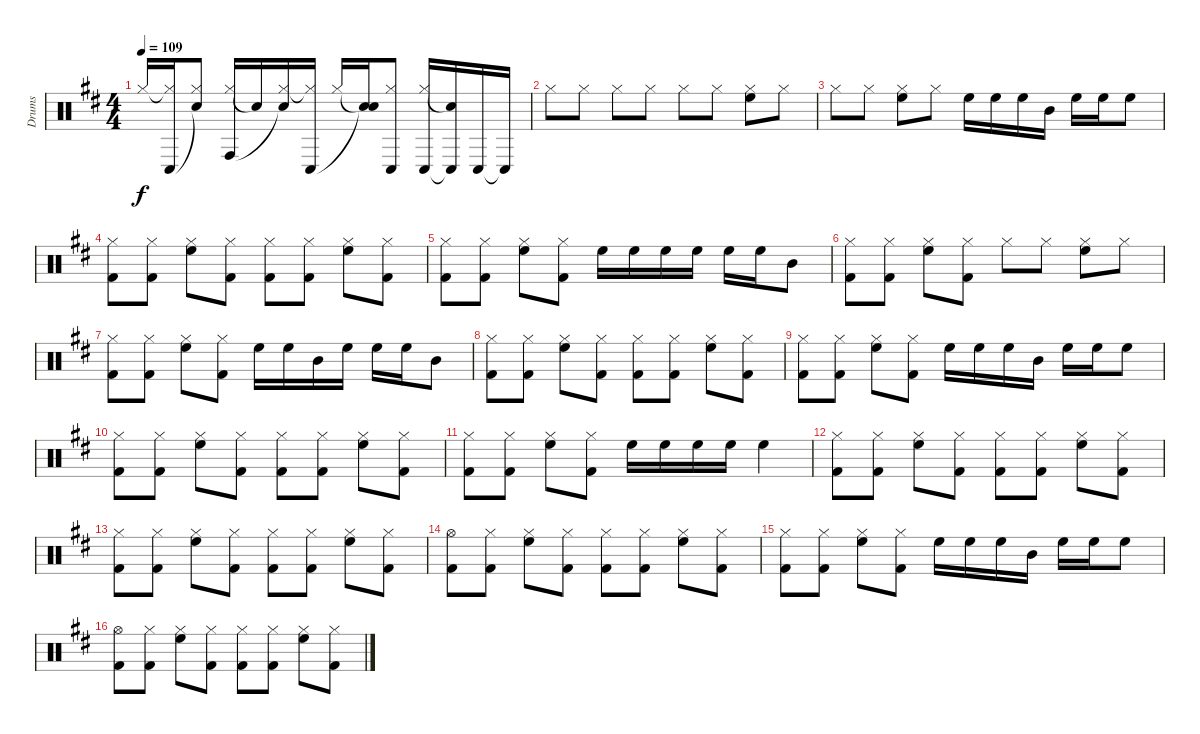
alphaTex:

\track ("Drums" "Drums") {instrument percussion}
\staff {score}
\articulation defaults
\ts (4 4)
\tempo 109
\clef neutral
\ks d "Hi-Hat (closed)".16{dy f}
("Hi-Hat (closed)"{t} "Conga low (hit)").16 ("Hi-Hat (closed)" "Snare (hit)"{t}).8 ("Hi-Hat (closed)" "Conga high (hit)").16 "Snare (hit)"{t}.16 ("Hi-Hat (closed)" "Snare (hit)"{t}).16 ("Hi-Hat (closed)"{t} "Conga low (hit)").16 "Hi-Hat (closed)".16 ("Snare (hit)"{t} "Snare (hit)"{t}).16 ("Hi-Hat (closed)" "Conga low (hit)").8 ("Hi-Hat (closed)" "Conga low (hit)").16 ("Snare (hit)"{t} "Conga low (hit)"{t}).16 "Conga low (hit)".16 "Conga low (hit)"{t}.16 |
"Hi-Hat (closed)".8 "Hi-Hat (closed)".8 "Hi-Hat (closed)".8 "Hi-Hat (closed)".8 "Hi-Hat (closed)".8 "Hi-Hat (closed)".8 ("Hi-Hat (closed)" "High Floor Tom (hit)").8 "Hi-Hat (closed)".8 |
"Hi-Hat (closed)".8 "Hi-Hat (closed)".8 ("Hi-Hat (closed)" "High Floor Tom (hit)").8 "Hi-Hat (closed)".8 "High Floor Tom (hit)".16 "High Floor Tom (hit)".16 "High Floor Tom (hit)".16 "Mid Tom (hit)".16 "High Floor Tom (hit)".16 "High Floor Tom (hit)".16 "High Floor Tom (hit)".8 |
("Hi-Hat (closed)" "Kick (hit) 2").8 ("Hi-Hat (closed)" "Kick (hit) 2").8 ("Hi-Hat (closed)" "High Floor Tom (hit)").8 ("Hi-Hat (closed)" "Kick (hit) 2").8 ("Hi-Hat (closed)" "Kick (hit) 2").8 ("Hi-Hat (closed)" "Kick (hit) 2").8 ("Hi-Hat (closed)" "High Floor Tom (hit)").8 ("Hi-Hat (closed)" "Kick (hit) 2").8 |
("Hi-Hat (closed)" "Kick (hit) 2").8 ("Hi-Hat (closed)" "Kick (hit) 2").8 ("Hi-Hat (closed)" "High Floor Tom (hit)").8 ("Hi-Hat (closed)" "Kick (hit) 2").8 "High Floor Tom (hit)".16 "High Floor Tom (hit)".16 "High Floor Tom (hit)".16 "High Floor Tom (hit)".16 "High Floor Tom (hit)".16 "High Floor Tom (hit)".16 "Mid Tom (hit)".8 |
("Hi-Hat (closed)" "Kick (hit) 2").8 ("Hi-Hat (closed)" "Kick (hit) 2").8 ("Hi-Hat (closed)" "High Floor Tom (hit)").8 ("Hi-Hat (closed)" "Kick (hit) 2").8 "Hi-Hat (closed)".8 "Hi-Hat (closed)".8 ("Hi-Hat (closed)" "High Floor Tom (hit)").8 "Hi-Hat (closed)".8 |
("Hi-Hat (closed)" "Kick (hit) 2").8 ("Hi-Hat (closed)" "Kick (hit) 2").8 ("Hi-Hat (closed)" "High Floor Tom (hit)").8 ("Hi-Hat (closed)" "Kick (hit) 2").8 "High Floor Tom (hit)".16 "High Floor Tom (hit)".16 "Mid Tom (hit)".16 "High Floor Tom (hit)".16 "High Floor Tom (hit)".16 "High Floor Tom (hit)".16 "Mid Tom (hit)".8 |
("Hi-Hat (closed)" "Kick (hit) 2").8 ("Hi-Hat (closed)" "Kick (hit) 2").8 ("Hi-Hat (closed)" "High Floor Tom (hit)").8 ("Hi-Hat (closed)" "Kick (hit) 2").8 ("Hi-Hat (closed)" "Kick (hit) 2").8 ("Hi-Hat (closed)" "Kick (hit) 2").8 ("Hi-Hat (closed)" "High Floor Tom (hit)").8 ("Hi-Hat (closed)" "Kick (hit) 2").8 |
("Hi-Hat (closed)" "Kick (hit) 2").8 ("Hi-Hat (closed)" "Kick (hit) 2").8 ("Hi-Hat (closed)" "High Floor Tom (hit)").8 ("Hi-Hat (closed)" "Kick (hit) 2").8 "High Floor Tom (hit)".16 "High Floor Tom (hit)".16 "High Floor Tom (hit)".16 "Mid Tom (hit)".16 "High Floor Tom (hit)".16 "High Floor Tom (hit)".16 "High Floor Tom (hit)".8 |
("Hi-Hat (closed)" "Kick (hit) 2").8 ("Hi-Hat (closed)" "Kick (hit) 2").8 ("Hi-Hat (closed)" "High Floor Tom (hit)").8 ("Hi-Hat (closed)" "Kick (hit) 2").8 ("Hi-Hat (closed)" "Kick (hit) 2").8 ("Hi-Hat (closed)" "Kick (hit) 2").8 ("Hi-Hat (closed)" "High Floor Tom (hit)").8 ("Hi-Hat (closed)" "Kick (hit) 2").8 |
("Hi-Hat (closed)" "Kick (hit) 2").8 ("Hi-Hat (closed)" "Kick (hit) 2").8 ("Hi-Hat (closed)" "High Floor Tom (hit)").8 ("Hi-Hat (closed)" "Kick (hit) 2").8 "High Floor Tom (hit)".16 "High Floor Tom (hit)".16 "High Floor Tom (hit)".16 "High Floor Tom (hit)".16 "High Floor Tom (hit)".4 |
("Hi-Hat (closed)" "Kick (hit) 2").8 ("Hi-Hat (closed)" "Kick (hit) 2").8 ("Hi-Hat (closed)" "High Floor Tom (hit)").8 ("Hi-Hat (closed)" "Kick (hit) 2").8 ("Hi-Hat (closed)" "Kick (hit) 2").8 ("Hi-Hat (closed)" "Kick (hit) 2").8 ("Hi-Hat (closed)" "High Floor Tom (hit)").8 ("Hi-Hat (closed)" "Kick (hit) 2").8 |
("Hi-Hat (closed)" "Kick (hit) 2").8 ("Hi-Hat (closed)" "Kick (hit) 2").8 ("Hi-Hat (closed)" "High Floor Tom (hit)").8 ("Hi-Hat (closed)" "Kick (hit) 2").8 ("Hi-Hat (closed)" "Kick (hit) 2").8 ("Hi-Hat (closed)" "Kick (hit) 2").8 ("Hi-Hat (closed)" "High Floor Tom (hit)").8 ("Hi-Hat (closed)" "Kick (hit) 2").8 |
("Hi-Hat (open)" "Kick (hit) 2").8 ("Hi-Hat (closed)" "Kick (hit) 2").8 ("Hi-Hat (closed)" "High Floor Tom (hit)").8 ("Hi-Hat (closed)" "Kick (hit) 2").8 ("Hi-Hat (closed)" "Kick (hit) 2").8 ("Hi-Hat (closed)" "Kick (hit) 2").8 ("Hi-Hat (closed)" "High Floor Tom (hit)").8 ("Hi-Hat (closed)" "Kick (hit) 2").8 |
("Hi-Hat (closed)" "Kick (hit) 2").8 ("Hi-Hat (closed)" "Kick (hit) 2").8 ("Hi-Hat (closed)" "High Floor Tom (hit)").8 ("Hi-Hat (closed)" "Kick (hit) 2").8 "High Floor Tom (hit)".16 "High Floor Tom (hit)".16 "High Floor Tom (hit)".16 "Mid Tom (hit)".16 "High Floor Tom (hit)".16 "High Floor Tom (hit)".16 "High Floor Tom (hit)".8 |
("Hi-Hat (open)" "Kick (hit) 2").8 ("Hi-Hat (closed)" "Kick (hit) 2").8 ("Hi-Hat (closed)" "High Floor Tom (hit)").8 ("Hi-Hat (closed)" "Kick (hit) 2").8 ("Hi-Hat (closed)" "Kick (hit) 2").8 ("Hi-Hat (closed)" "Kick (hit) 2").8 ("Hi-Hat (closed)" "High Floor Tom (hit)").8 ("Hi-Hat (closed)" "Kick (hit) 2").8
